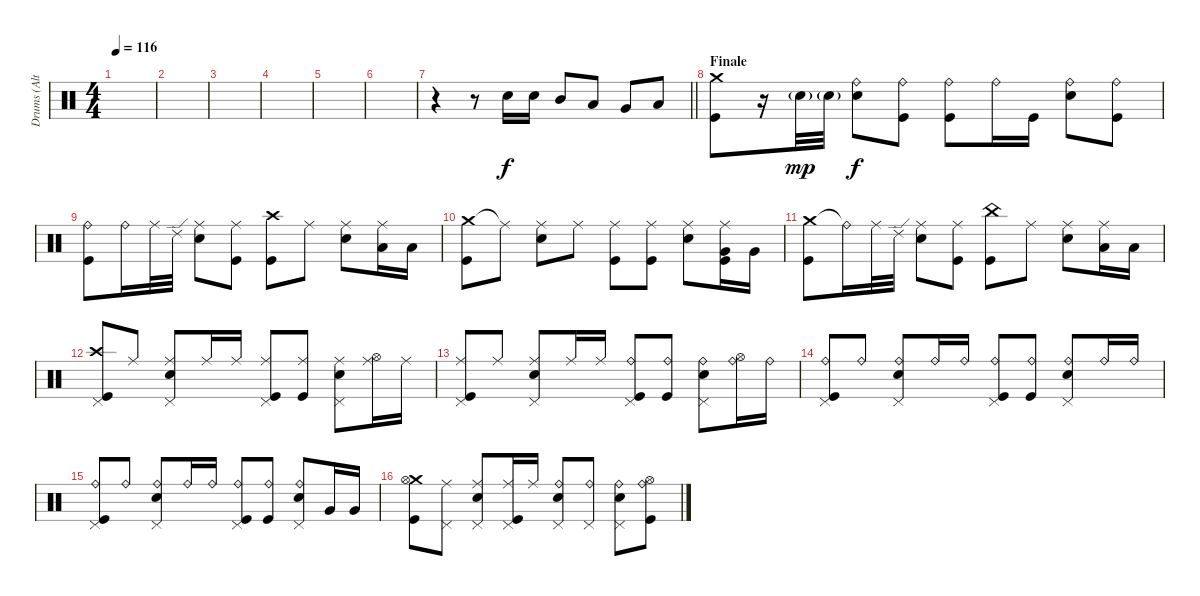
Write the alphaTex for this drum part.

\track ("Drums (Alternate - NOT ON MASTER)" "Drums (Alt") {mute instrument percussion}
\staff {score}
\articulation defaults
\ts (4 4)
\tempo 116
\clef neutral
\ks c
|
|
|
|
|
|
\barLineRight lightlight
r.4 r.8 "Snare (hit) 2".16 "Snare (hit) 2".16 "Mid Tom (hit)".8 "Low Tom (hit)".8 "Very Low Tom (hit)".8 "Low Floor Tom (hit)".8 |
\section ("" "Finale")
("Crash medium (hit)" "Kick (hit)").8 r.16 "Snare (hit) 2"{g}.32{dy mp} "Snare (hit) 2"{g}.32 ("Ride (bell)" "Snare (hit) 2").8{dy f} ("Ride (bell)" "Kick (hit)").8 ("Ride (bell)" "Kick (hit)").8 "Ride (bell)".16 "Kick (hit)".16 ("Ride (bell)" "Snare (hit) 2").8 ("Ride (bell)" "Kick (hit)").8 |
("Ride (bell)" "Kick (hit)").8 "Ride (bell)".16 "Ride (middle)".32 "Ride (edge) 2".32 ("Ride (middle)" "Snare (hit) 2").8 ("Ride (middle)" "Kick (hit)").8 ("Crash high (hit)" "Kick (hit)").8 "Ride (middle)".8 ("Ride (middle)" "Snare (hit) 2").8 ("Ride (middle)" "Low Floor Tom (hit)").16 "Low Floor Tom (hit)".16 |
("Crash medium (hit)" "Kick (hit)").8 "Ride (middle)"{t}.8 ("Ride (middle)" "Snare (hit) 2").8 "Ride (middle)".8 ("Ride (middle)" "Kick (hit)").8 ("Ride (middle)" "Kick (hit)").8 ("Ride (middle)" "Snare (hit) 2").8 ("Ride (middle)" "Very Low Tom (hit)" "Kick (hit)").16 "Very Low Tom (hit)".16 |
("Crash medium (hit)" "Kick (hit)").8 "Ride (bell)"{t}.16 "Ride (middle)".32 "Ride (edge) 2".32 ("Ride (middle)" "Snare (hit) 2").8 ("Ride (middle)" "Kick (hit)").8 ("China (hit)" "Kick (hit)").8 "Ride (middle)".8 ("Ride (middle)" "Snare (hit) 2").8 ("Ride (middle)" "Low Floor Tom (hit)").16 "Low Floor Tom (hit)".16 |
("Crash high (hit)" "Pedal Hi-Hat (hit)" "Kick (hit)").8 "Ride (middle)".8 ("Ride (middle)" "Snare (hit) 2" "Pedal Hi-Hat (hit)").8 "Ride (middle)".16 "Ride (middle)".16 ("Ride (middle)" "Pedal Hi-Hat (hit)" "Kick (hit)").8 ("Ride (middle)" "Kick (hit)").8 ("Ride (middle)" "Snare (hit) 2" "Pedal Hi-Hat (hit)").8 ("Ride (middle)" "Hi-Hat (open)").16 "Ride (middle)".16 |
("Ride (middle)" "Pedal Hi-Hat (hit)" "Kick (hit)").8 "Ride (middle)".8 ("Ride (middle)" "Snare (hit) 2" "Pedal Hi-Hat (hit)").8 "Ride (middle)".16 "Ride (middle)".16 ("Ride (bell)" "Pedal Hi-Hat (hit)" "Kick (hit)").8 ("Ride (bell)" "Kick (hit)").8 ("Ride (bell)" "Snare (hit) 2" "Pedal Hi-Hat (hit)").8 ("Ride (bell)" "Hi-Hat (open)").16 "Ride (bell)".16 |
("Ride (bell)" "Pedal Hi-Hat (hit)" "Kick (hit)").8 "Ride (bell)".8 ("Ride (bell)" "Snare (hit) 2" "Pedal Hi-Hat (hit)").8 "Ride (bell)".16 "Ride (bell)".16 ("Ride (bell)" "Pedal Hi-Hat (hit)" "Kick (hit)").8 ("Ride (bell)" "Kick (hit)").8 ("Ride (bell)" "Snare (hit) 2" "Pedal Hi-Hat (hit)").8 "Ride (bell)".16 "Ride (bell)".16 |
("Ride (bell)" "Pedal Hi-Hat (hit)" "Kick (hit)").8 "Ride (bell)".8 ("Ride (bell)" "Snare (hit) 2" "Pedal Hi-Hat (hit)").8 "Ride (bell)".16 "Ride (bell)".16 ("Ride (bell)" "Pedal Hi-Hat (hit)" "Kick (hit)").8 ("Ride (bell)" "Kick (hit)").8 ("Ride (bell)" "Snare (hit) 2" "Pedal Hi-Hat (hit)").8 "Very Low Tom (hit)".16 "Very Low Tom (hit)".16 |
("Crash medium (hit)" "Hi-Hat (open)" "Kick (hit)").8 ("Ride (middle)" "Pedal Hi-Hat (hit)").8 ("Ride (middle)" "Snare (hit) 2" "Pedal Hi-Hat (hit)").8 ("Ride (middle)" "Pedal Hi-Hat (hit)" "Kick (hit)").16 "Ride (middle)".16 ("Ride (bell)" "Snare (hit) 2" "Pedal Hi-Hat (hit)").8 ("Ride (bell)" "Pedal Hi-Hat (hit)").8 ("Ride (bell)" "Snare (hit) 2" "Pedal Hi-Hat (hit)").8 ("Ride (bell)" "Hi-Hat (open)" "Kick (hit)").8
